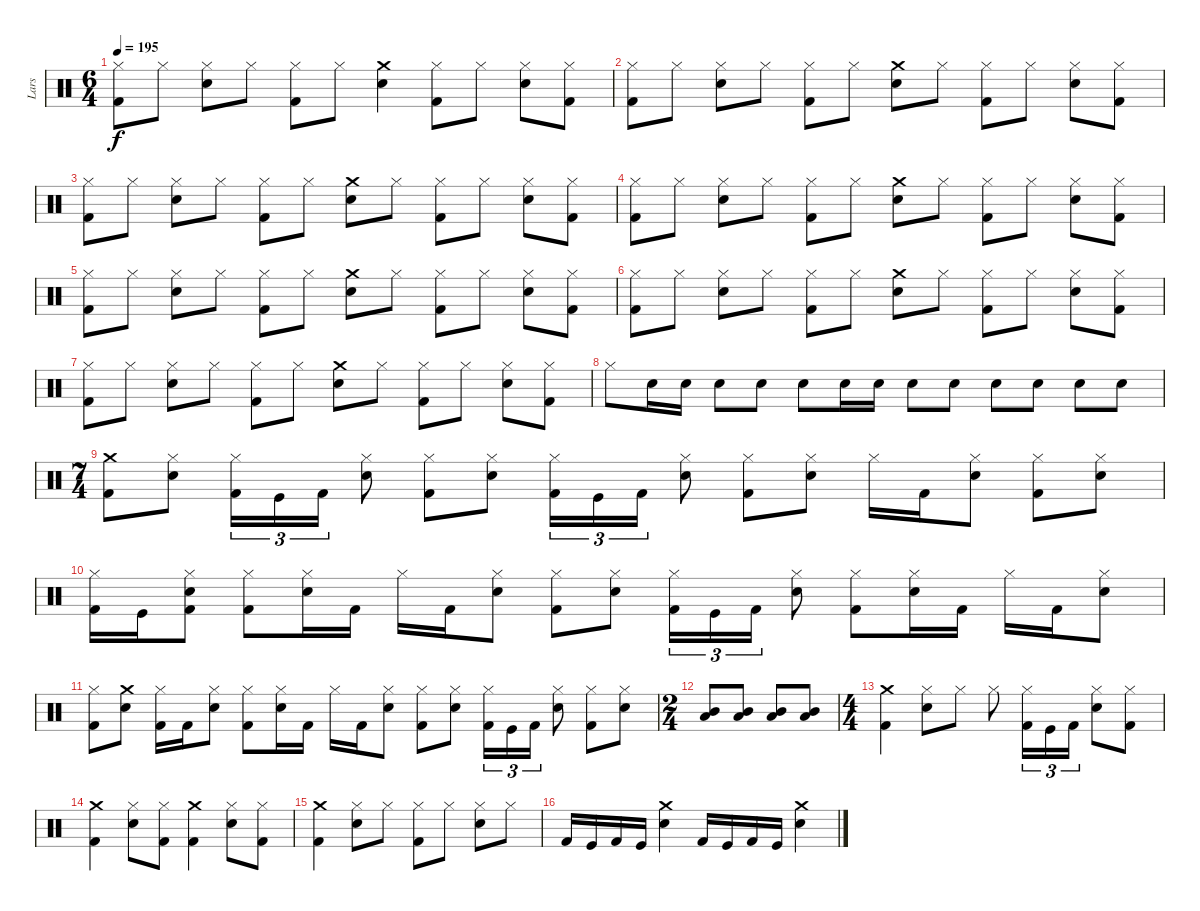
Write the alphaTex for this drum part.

\track ("Lars" "Lars") {instrument percussion}
\staff {score}
\articulation defaults
\ts (6 4)
\tempo 195
\clef neutral
\ks c
("Hi-Hat (closed)" "Kick (hit) 2").8{dy f} "Hi-Hat (closed)".8 ("Snare (hit) 2" "Hi-Hat (closed)").8 "Hi-Hat (closed)".8 ("Hi-Hat (closed)" "Kick (hit) 2").8 "Hi-Hat (closed)".8 ("Snare (hit) 2" "Crash medium (hit)").4 ("Hi-Hat (closed)" "Kick (hit) 2").8 "Hi-Hat (closed)".8 ("Snare (hit) 2" "Hi-Hat (closed)").8 ("Kick (hit) 2" "Hi-Hat (closed)").8 |
("Hi-Hat (closed)" "Kick (hit) 2").8 "Hi-Hat (closed)".8 ("Snare (hit) 2" "Hi-Hat (closed)").8 "Hi-Hat (closed)".8 ("Hi-Hat (closed)" "Kick (hit) 2").8 "Hi-Hat (closed)".8 ("Crash medium (hit)" "Snare (hit) 2").8 "Hi-Hat (closed)".8 ("Hi-Hat (closed)" "Kick (hit) 2").8 "Hi-Hat (closed)".8 ("Snare (hit) 2" "Hi-Hat (closed)").8 ("Kick (hit) 2" "Hi-Hat (closed)").8 |
("Hi-Hat (closed)" "Kick (hit) 2").8 "Hi-Hat (closed)".8 ("Snare (hit) 2" "Hi-Hat (closed)").8 "Hi-Hat (closed)".8 ("Hi-Hat (closed)" "Kick (hit) 2").8 "Hi-Hat (closed)".8 ("Crash medium (hit)" "Snare (hit) 2").8 "Hi-Hat (closed)".8 ("Hi-Hat (closed)" "Kick (hit) 2").8 "Hi-Hat (closed)".8 ("Snare (hit) 2" "Hi-Hat (closed)").8 ("Kick (hit) 2" "Hi-Hat (closed)").8 |
("Hi-Hat (closed)" "Kick (hit) 2").8 "Hi-Hat (closed)".8 ("Snare (hit) 2" "Hi-Hat (closed)").8 "Hi-Hat (closed)".8 ("Hi-Hat (closed)" "Kick (hit) 2").8 "Hi-Hat (closed)".8 ("Crash medium (hit)" "Snare (hit) 2").8 "Hi-Hat (closed)".8 ("Hi-Hat (closed)" "Kick (hit) 2").8 "Hi-Hat (closed)".8 ("Snare (hit) 2" "Hi-Hat (closed)").8 ("Kick (hit) 2" "Hi-Hat (closed)").8 |
("Hi-Hat (closed)" "Kick (hit) 2").8 "Hi-Hat (closed)".8 ("Snare (hit) 2" "Hi-Hat (closed)").8 "Hi-Hat (closed)".8 ("Hi-Hat (closed)" "Kick (hit) 2").8 "Hi-Hat (closed)".8 ("Crash medium (hit)" "Snare (hit) 2").8 "Hi-Hat (closed)".8 ("Hi-Hat (closed)" "Kick (hit) 2").8 "Hi-Hat (closed)".8 ("Snare (hit) 2" "Hi-Hat (closed)").8 ("Kick (hit) 2" "Hi-Hat (closed)").8 |
("Hi-Hat (closed)" "Kick (hit) 2").8 "Hi-Hat (closed)".8 ("Snare (hit) 2" "Hi-Hat (closed)").8 "Hi-Hat (closed)".8 ("Hi-Hat (closed)" "Kick (hit) 2").8 "Hi-Hat (closed)".8 ("Crash medium (hit)" "Snare (hit) 2").8 "Hi-Hat (closed)".8 ("Hi-Hat (closed)" "Kick (hit) 2").8 "Hi-Hat (closed)".8 ("Snare (hit) 2" "Hi-Hat (closed)").8 ("Kick (hit) 2" "Hi-Hat (closed)").8 |
("Hi-Hat (closed)" "Kick (hit) 2").8 "Hi-Hat (closed)".8 ("Snare (hit) 2" "Hi-Hat (closed)").8 "Hi-Hat (closed)".8 ("Hi-Hat (closed)" "Kick (hit) 2").8 "Hi-Hat (closed)".8 ("Crash medium (hit)" "Snare (hit) 2").8 "Hi-Hat (closed)".8 ("Hi-Hat (closed)" "Kick (hit) 2").8 "Hi-Hat (closed)".8 ("Snare (hit) 2" "Hi-Hat (closed)").8 ("Kick (hit) 2" "Hi-Hat (closed)").8 |
"Hi-Hat (closed)".8 "Snare (hit) 2".16 "Snare (hit) 2".16 "Snare (hit) 2".8 "Snare (hit) 2".8 "Snare (hit) 2".8 "Snare (hit) 2".16 "Snare (hit) 2".16 "Snare (hit) 2".8 "Snare (hit) 2".8 "Snare (hit) 2".8 "Snare (hit) 2".8 "Snare (hit) 2".8 "Snare (hit) 2".8 |
\ts (7 4)
("Crash medium (hit)" "Kick (hit) 2").8 ("Snare (hit) 2" "Hi-Hat (closed)").8 ("Hi-Hat (closed)" "Kick (hit) 2").16{tu (3 2)} "Kick (hit)".16{tu (3 2)} "Kick (hit) 2".16{tu (3 2)} ("Snare (hit) 2" "Hi-Hat (closed)").8 ("Hi-Hat (closed)" "Kick (hit) 2").8 ("Snare (hit) 2" "Hi-Hat (closed)").8 ("Hi-Hat (closed)" "Kick (hit) 2").16{tu (3 2)} "Kick (hit)".16{tu (3 2)} "Kick (hit) 2".16{tu (3 2)} ("Snare (hit) 2" "Hi-Hat (closed)").8 ("Hi-Hat (closed)" "Kick (hit) 2").8 ("Snare (hit) 2" "Hi-Hat (closed)").8 "Hi-Hat (closed)".16 "Kick (hit) 2".16 ("Snare (hit) 2" "Hi-Hat (closed)").8 ("Hi-Hat (closed)" "Kick (hit) 2").8 ("Snare (hit) 2" "Hi-Hat (closed)").8 |
("Hi-Hat (closed)" "Kick (hit) 2").16 "Kick (hit)".16 ("Snare (hit) 2" "Hi-Hat (closed)" "Kick (hit) 2").8 ("Hi-Hat (closed)" "Kick (hit) 2").8 ("Snare (hit) 2" "Hi-Hat (closed)").16 "Kick (hit) 2".16 "Hi-Hat (closed)".16 "Kick (hit) 2".16 ("Snare (hit) 2" "Hi-Hat (closed)").8 ("Hi-Hat (closed)" "Kick (hit) 2").8 ("Snare (hit) 2" "Hi-Hat (closed)").8 ("Hi-Hat (closed)" "Kick (hit) 2").16{tu (3 2)} "Kick (hit)".16{tu (3 2)} "Kick (hit) 2".16{tu (3 2)} ("Snare (hit) 2" "Hi-Hat (closed)").8 ("Hi-Hat (closed)" "Kick (hit) 2").8 ("Snare (hit) 2" "Hi-Hat (closed)").16 "Kick (hit) 2".16 "Hi-Hat (closed)".16 "Kick (hit) 2".16 ("Snare (hit) 2" "Hi-Hat (closed)").8 |
("Kick (hit) 2" "Hi-Hat (closed)").8 ("Snare (hit) 2" "Crash medium (hit)").8 ("Hi-Hat (closed)" "Kick (hit) 2").16 "Kick (hit) 2".16 ("Snare (hit) 2" "Hi-Hat (closed)").8 ("Hi-Hat (closed)" "Kick (hit) 2").8 ("Snare (hit) 2" "Hi-Hat (closed)").16 "Kick (hit) 2".16 "Hi-Hat (closed)".16 "Kick (hit) 2".16 ("Snare (hit) 2" "Hi-Hat (closed)").8 ("Hi-Hat (closed)" "Kick (hit) 2").8 ("Snare (hit) 2" "Hi-Hat (closed)").8 ("Hi-Hat (closed)" "Kick (hit) 2").16{tu (3 2)} "Kick (hit)".16{tu (3 2)} "Kick (hit) 2".16{tu (3 2)} ("Snare (hit) 2" "Hi-Hat (closed)").8 ("Hi-Hat (closed)" "Kick (hit) 2").8 ("Snare (hit) 2" "Hi-Hat (closed)").8 |
\ts (2 4)
("Mid Tom (hit)" "Low Tom (hit)").8 ("Low Tom (hit)" "Mid Tom (hit)").8 ("Mid Tom (hit)" "Low Tom (hit)").8 ("Low Tom (hit)" "Mid Tom (hit)").8 |
\ts (4 4)
("Kick (hit) 2" "Crash medium (hit)").4 ("Hi-Hat (closed)" "Snare (hit) 2").8 "Hi-Hat (closed)".8 "Hi-Hat (closed)".8 ("Hi-Hat (closed)" "Kick (hit) 2").16{tu (3 2)} "Kick (hit)".16{tu (3 2)} "Kick (hit) 2".16{tu (3 2)} ("Snare (hit) 2" "Hi-Hat (closed)").8 ("Hi-Hat (closed)" "Kick (hit) 2").8 |
("Kick (hit) 2" "Crash medium (hit)").4 ("Hi-Hat (closed)" "Snare (hit) 2").8 ("Kick (hit) 2" "Hi-Hat (closed)").8 ("Crash medium (hit)" "Kick (hit) 2").4 ("Hi-Hat (closed)" "Snare (hit) 2").8 ("Kick (hit) 2" "Hi-Hat (closed)").8 |
("Kick (hit) 2" "Crash medium (hit)").4 ("Hi-Hat (closed)" "Snare (hit) 2").8 "Hi-Hat (closed)".8 ("Hi-Hat (closed)" "Kick (hit) 2").8 "Hi-Hat (closed)".8 ("Snare (hit) 2" "Hi-Hat (closed)").8 "Hi-Hat (closed)".8 |
"Kick (hit) 2".16 "Kick (hit)".16 "Kick (hit) 2".16 "Kick (hit)".16 ("Crash medium (hit)" "Snare (hit) 2").4 "Kick (hit) 2".16 "Kick (hit)".16 "Kick (hit) 2".16 "Kick (hit)".16 ("Snare (hit) 2" "Crash medium (hit)").4
